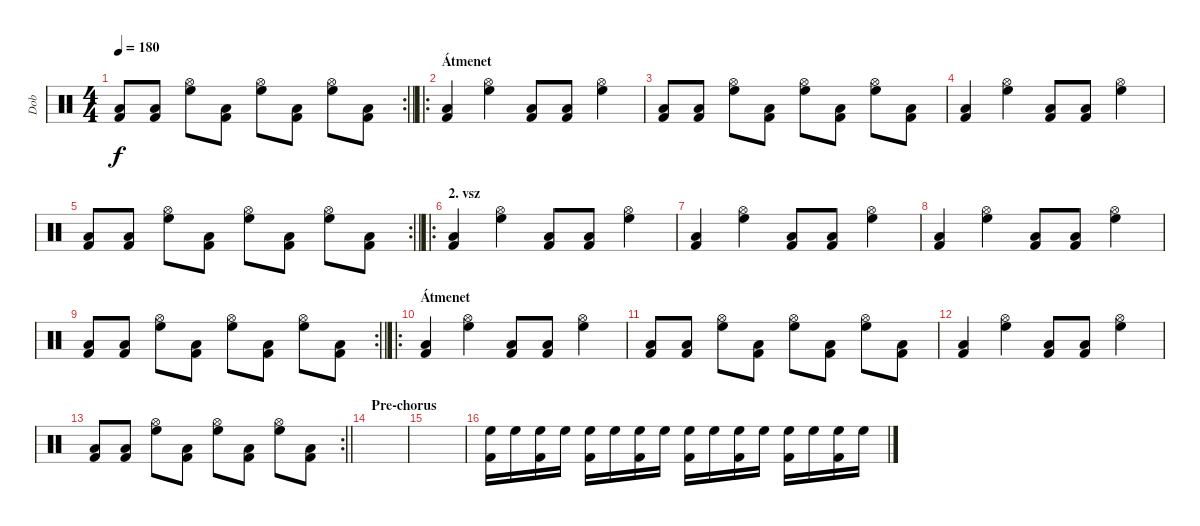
\track ("Dob" "Dob") {instrument percussion}
\staff {score}
\articulation defaults
\rc 2
\ts (4 4)
\tempo 180
\clef neutral
\barLineRight lightlight
\ks c
("Low Tom (hit)" "Kick (hit) 2").8{dy f} ("Low Tom (hit)" "Kick (hit) 2").8 ("Hi-Hat (open)" "High Floor Tom (hit)").8 ("Low Tom (hit)" "Kick (hit) 2").8 ("Hi-Hat (open)" "High Floor Tom (hit)").8 ("Low Tom (hit)" "Kick (hit) 2").8 ("Hi-Hat (open)" "High Floor Tom (hit)").8 ("Low Tom (hit)" "Kick (hit) 2").8 |
\ro
\section ("" "Átmenet")
("Low Tom (hit)" "Kick (hit) 2").4 ("Hi-Hat (open)" "High Floor Tom (hit)").4 ("Low Tom (hit)" "Kick (hit) 2").8 ("Low Tom (hit)" "Kick (hit) 2").8 ("Hi-Hat (open)" "High Floor Tom (hit)").4 |
("Low Tom (hit)" "Kick (hit) 2").8 ("Low Tom (hit)" "Kick (hit) 2").8 ("Hi-Hat (open)" "High Floor Tom (hit)").8 ("Low Tom (hit)" "Kick (hit) 2").8 ("Hi-Hat (open)" "High Floor Tom (hit)").8 ("Low Tom (hit)" "Kick (hit) 2").8 ("Hi-Hat (open)" "High Floor Tom (hit)").8 ("Low Tom (hit)" "Kick (hit) 2").8 |
("Low Tom (hit)" "Kick (hit) 2").4 ("Hi-Hat (open)" "High Floor Tom (hit)").4 ("Low Tom (hit)" "Kick (hit) 2").8 ("Low Tom (hit)" "Kick (hit) 2").8 ("Hi-Hat (open)" "High Floor Tom (hit)").4 |
\rc 2
\barLineRight lightlight
("Low Tom (hit)" "Kick (hit) 2").8 ("Low Tom (hit)" "Kick (hit) 2").8 ("Hi-Hat (open)" "High Floor Tom (hit)").8 ("Low Tom (hit)" "Kick (hit) 2").8 ("Hi-Hat (open)" "High Floor Tom (hit)").8 ("Low Tom (hit)" "Kick (hit) 2").8 ("Hi-Hat (open)" "High Floor Tom (hit)").8 ("Low Tom (hit)" "Kick (hit) 2").8 |
\ro
\section ("" "2. vsz")
("Low Tom (hit)" "Kick (hit) 2").4 ("Hi-Hat (open)" "High Floor Tom (hit)").4 ("Low Tom (hit)" "Kick (hit) 2").8 ("Low Tom (hit)" "Kick (hit) 2").8 ("Hi-Hat (open)" "High Floor Tom (hit)").4 |
("Low Tom (hit)" "Kick (hit) 2").4 ("Hi-Hat (open)" "High Floor Tom (hit)").4 ("Low Tom (hit)" "Kick (hit) 2").8 ("Low Tom (hit)" "Kick (hit) 2").8 ("Hi-Hat (open)" "High Floor Tom (hit)").4 |
("Low Tom (hit)" "Kick (hit) 2").4 ("Hi-Hat (open)" "High Floor Tom (hit)").4 ("Low Tom (hit)" "Kick (hit) 2").8 ("Low Tom (hit)" "Kick (hit) 2").8 ("Hi-Hat (open)" "High Floor Tom (hit)").4 |
\rc 2
\barLineRight lightlight
("Low Tom (hit)" "Kick (hit) 2").8 ("Low Tom (hit)" "Kick (hit) 2").8 ("Hi-Hat (open)" "High Floor Tom (hit)").8 ("Low Tom (hit)" "Kick (hit) 2").8 ("Hi-Hat (open)" "High Floor Tom (hit)").8 ("Low Tom (hit)" "Kick (hit) 2").8 ("Hi-Hat (open)" "High Floor Tom (hit)").8 ("Low Tom (hit)" "Kick (hit) 2").8 |
\ro
\section ("" "Átmenet")
("Low Tom (hit)" "Kick (hit) 2").4 ("Hi-Hat (open)" "High Floor Tom (hit)").4 ("Low Tom (hit)" "Kick (hit) 2").8 ("Low Tom (hit)" "Kick (hit) 2").8 ("Hi-Hat (open)" "High Floor Tom (hit)").4 |
("Low Tom (hit)" "Kick (hit) 2").8 ("Low Tom (hit)" "Kick (hit) 2").8 ("Hi-Hat (open)" "High Floor Tom (hit)").8 ("Low Tom (hit)" "Kick (hit) 2").8 ("Hi-Hat (open)" "High Floor Tom (hit)").8 ("Low Tom (hit)" "Kick (hit) 2").8 ("Hi-Hat (open)" "High Floor Tom (hit)").8 ("Low Tom (hit)" "Kick (hit) 2").8 |
("Low Tom (hit)" "Kick (hit) 2").4 ("Hi-Hat (open)" "High Floor Tom (hit)").4 ("Low Tom (hit)" "Kick (hit) 2").8 ("Low Tom (hit)" "Kick (hit) 2").8 ("Hi-Hat (open)" "High Floor Tom (hit)").4 |
\rc 2
\barLineRight lightlight
("Low Tom (hit)" "Kick (hit) 2").8 ("Low Tom (hit)" "Kick (hit) 2").8 ("Hi-Hat (open)" "High Floor Tom (hit)").8 ("Low Tom (hit)" "Kick (hit) 2").8 ("Hi-Hat (open)" "High Floor Tom (hit)").8 ("Low Tom (hit)" "Kick (hit) 2").8 ("Hi-Hat (open)" "High Floor Tom (hit)").8 ("Low Tom (hit)" "Kick (hit) 2").8 |
\section ("" "Pre-chorus")
|
|
("Kick (hit) 2" "High Floor Tom (hit)").16 "High Floor Tom (hit)".16 ("Kick (hit) 2" "High Floor Tom (hit)").16 "High Floor Tom (hit)".16 ("Kick (hit) 2" "High Floor Tom (hit)").16 "High Floor Tom (hit)".16 ("Kick (hit) 2" "High Floor Tom (hit)").16 "High Floor Tom (hit)".16 ("Kick (hit) 2" "High Floor Tom (hit)").16 "High Floor Tom (hit)".16 ("Kick (hit) 2" "High Floor Tom (hit)").16 "High Floor Tom (hit)".16 ("Kick (hit) 2" "High Floor Tom (hit)").16 "High Floor Tom (hit)".16 ("Kick (hit) 2" "High Floor Tom (hit)").16 "High Floor Tom (hit)".16
